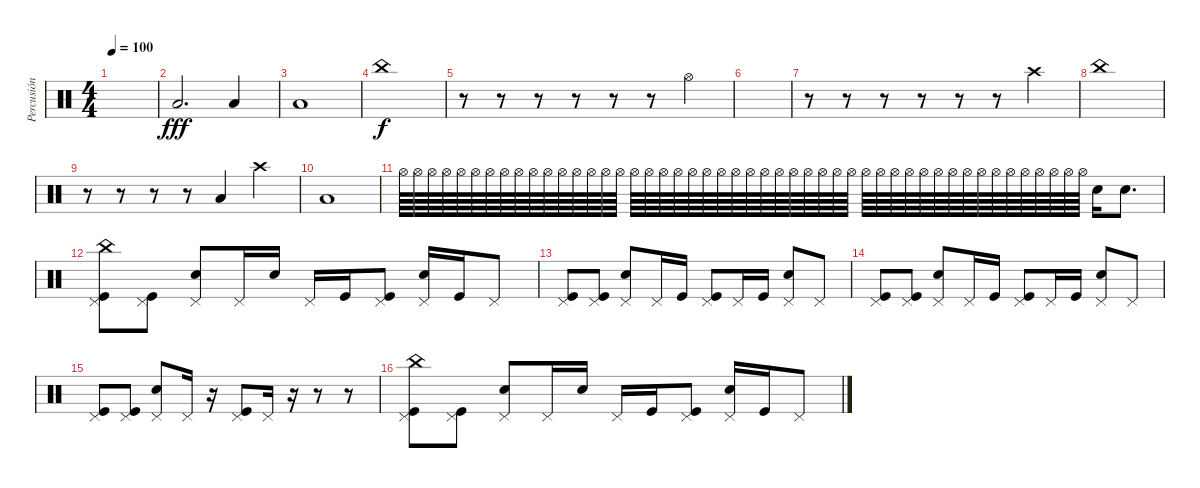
\track ("Percusión" "Percusión") {instrument percussion}
\staff {score}
\articulation defaults
\ts (4 4)
\tempo 100
\clef neutral
\ks c
|
"Low Tom (hit)".2{d dy fff} "Low Tom (hit)".4 |
"Low Tom (hit)".1 |
"China (hit)".1{dy f} |
r.8 r.8 r.8 r.8 r.8 r.8 "Hi-Hat (open)".4 |
|
r.8 r.8 r.8 r.8 r.8 r.8 "Crash high (hit)".4 |
"China (hit)".1 |
r.8 r.8 r.8 r.8 "Low Tom (hit)".4 "Crash high (hit)".4 |
"Low Tom (hit)".1 |
"Hi-Hat (open)".64{volume 0} "Hi-Hat (open)".64{volume 13} "Hi-Hat (open)".64 "Hi-Hat (open)".64 "Hi-Hat (open)".64 "Hi-Hat (open)".64 "Hi-Hat (open)".64 "Hi-Hat (open)".64 "Hi-Hat (open)".64 "Hi-Hat (open)".64 "Hi-Hat (open)".64 "Hi-Hat (open)".64 "Hi-Hat (open)".64 "Hi-Hat (open)".64 "Hi-Hat (open)".64 "Hi-Hat (open)".64 "Hi-Hat (open)".64 "Hi-Hat (open)".64 "Hi-Hat (open)".64 "Hi-Hat (open)".64 "Hi-Hat (open)".64 "Hi-Hat (open)".64 "Hi-Hat (open)".64 "Hi-Hat (open)".64 "Hi-Hat (open)".64 "Hi-Hat (open)".64 "Hi-Hat (open)".64 "Hi-Hat (open)".64 "Hi-Hat (open)".64 "Hi-Hat (open)".64 "Hi-Hat (open)".64 "Hi-Hat (open)".64 "Hi-Hat (open)".64 "Hi-Hat (open)".64 "Hi-Hat (open)".64 "Hi-Hat (open)".64 "Hi-Hat (open)".64 "Hi-Hat (open)".64 "Hi-Hat (open)".64 "Hi-Hat (open)".64 "Hi-Hat (open)".64 "Hi-Hat (open)".64 "Hi-Hat (open)".64 "Hi-Hat (open)".64 "Hi-Hat (open)".64 "Hi-Hat (open)".64 "Hi-Hat (open)".64 "Hi-Hat (open)".64 "Electric Snare (hit)".16 "Electric Snare (hit)".8{d} |
("Kick (hit)" "China (hit)" "Pedal Hi-Hat (hit)").8 ("Kick (hit)" "Pedal Hi-Hat (hit)").8 ("Electric Snare (hit)" "Pedal Hi-Hat (hit)").8 "Pedal Hi-Hat (hit)".16 "Electric Snare (hit)".16 "Pedal Hi-Hat (hit)".16 "Kick (hit)".16 ("Kick (hit)" "Pedal Hi-Hat (hit)").8 ("Electric Snare (hit)" "Pedal Hi-Hat (hit)").16 "Kick (hit)".16 "Pedal Hi-Hat (hit)".8 |
("Kick (hit)" "Pedal Hi-Hat (hit)").8 ("Kick (hit)" "Pedal Hi-Hat (hit)").8 ("Electric Snare (hit)" "Pedal Hi-Hat (hit)").8 "Pedal Hi-Hat (hit)".16 "Kick (hit)".16 ("Kick (hit)" "Pedal Hi-Hat (hit)").8 "Pedal Hi-Hat (hit)".16 "Kick (hit)".16 ("Electric Snare (hit)" "Pedal Hi-Hat (hit)").8 "Pedal Hi-Hat (hit)".8 |
("Kick (hit)" "Pedal Hi-Hat (hit)").8 ("Kick (hit)" "Pedal Hi-Hat (hit)").8 ("Electric Snare (hit)" "Pedal Hi-Hat (hit)").8 "Pedal Hi-Hat (hit)".16 "Kick (hit)".16 ("Kick (hit)" "Pedal Hi-Hat (hit)").8 "Pedal Hi-Hat (hit)".16 "Kick (hit)".16 ("Electric Snare (hit)" "Pedal Hi-Hat (hit)").8 "Pedal Hi-Hat (hit)".8 |
("Kick (hit)" "Pedal Hi-Hat (hit)").8 ("Kick (hit)" "Pedal Hi-Hat (hit)").8 ("Electric Snare (hit)" "Pedal Hi-Hat (hit)").8 "Pedal Hi-Hat (hit)".16 r.16 ("Kick (hit)" "Pedal Hi-Hat (hit)").8 "Pedal Hi-Hat (hit)".16 r.16 r.8 r.8 |
("Kick (hit)" "China (hit)" "Pedal Hi-Hat (hit)").8 ("Kick (hit)" "Pedal Hi-Hat (hit)").8 ("Electric Snare (hit)" "Pedal Hi-Hat (hit)").8 "Pedal Hi-Hat (hit)".16 "Electric Snare (hit)".16 "Pedal Hi-Hat (hit)".16 "Kick (hit)".16 ("Kick (hit)" "Pedal Hi-Hat (hit)").8 ("Electric Snare (hit)" "Pedal Hi-Hat (hit)").16 "Kick (hit)".16 "Pedal Hi-Hat (hit)".8
